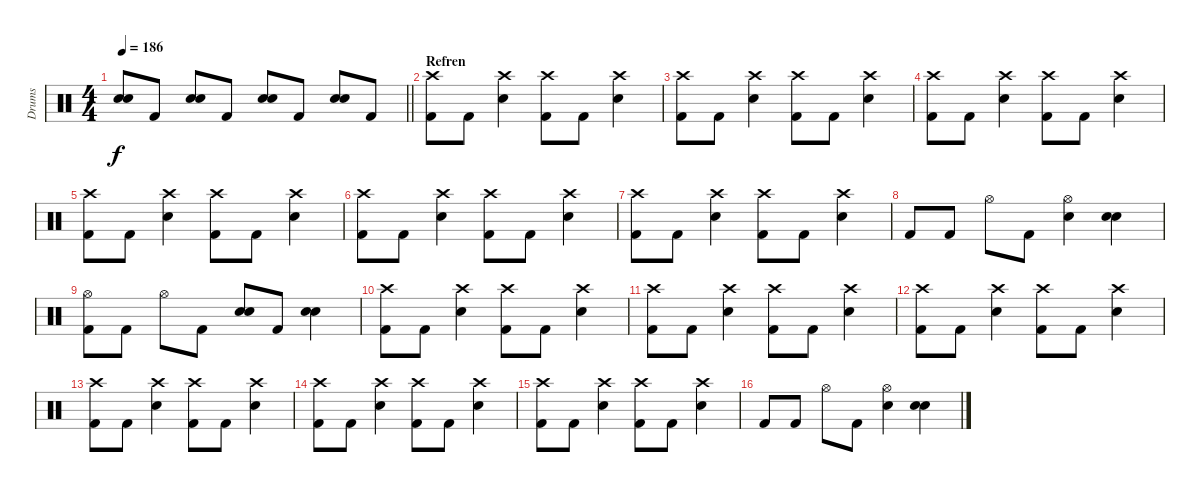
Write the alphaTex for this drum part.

\track ("Drums" "Drums") {instrument percussion}
\staff {score}
\articulation defaults
\ts (4 4)
\tempo 186
\clef neutral
\barLineRight lightlight
\ks c
("Snare (hit) 2" "Snare (hit) 2").8{dy f} "Kick (hit) 2".8 ("Snare (hit) 2" "Snare (hit) 2").8 "Kick (hit) 2".8 ("Snare (hit) 2" "Snare (hit) 2").8 "Kick (hit) 2".8 ("Snare (hit) 2" "Snare (hit) 2").8 "Kick (hit) 2".8 |
\section ("" "Refren")
("Crash high (hit)" "Kick (hit) 2").8 "Kick (hit) 2".8 ("Crash high (hit)" "Snare (hit) 2").4 ("Crash high (hit)" "Kick (hit) 2").8 "Kick (hit) 2".8 ("Crash high (hit)" "Snare (hit) 2").4 |
("Crash high (hit)" "Kick (hit) 2").8 "Kick (hit) 2".8 ("Crash high (hit)" "Snare (hit) 2").4 ("Crash high (hit)" "Kick (hit) 2").8 "Kick (hit) 2".8 ("Crash high (hit)" "Snare (hit) 2").4 |
("Crash high (hit)" "Kick (hit) 2").8 "Kick (hit) 2".8 ("Crash high (hit)" "Snare (hit) 2").4 ("Crash high (hit)" "Kick (hit) 2").8 "Kick (hit) 2".8 ("Crash high (hit)" "Snare (hit) 2").4 |
("Crash high (hit)" "Kick (hit) 2").8 "Kick (hit) 2".8 ("Crash high (hit)" "Snare (hit) 2").4 ("Crash high (hit)" "Kick (hit) 2").8 "Kick (hit) 2".8 ("Crash high (hit)" "Snare (hit) 2").4 |
("Crash high (hit)" "Kick (hit) 2").8 "Kick (hit) 2".8 ("Crash high (hit)" "Snare (hit) 2").4 ("Crash high (hit)" "Kick (hit) 2").8 "Kick (hit) 2".8 ("Crash high (hit)" "Snare (hit) 2").4 |
("Crash high (hit)" "Kick (hit) 2").8 "Kick (hit) 2".8 ("Crash high (hit)" "Snare (hit) 2").4 ("Crash high (hit)" "Kick (hit) 2").8 "Kick (hit) 2".8 ("Crash high (hit)" "Snare (hit) 2").4 |
"Kick (hit) 2".8 "Kick (hit) 2".8 "Hi-Hat (open)".8 "Kick (hit) 2".8 ("Hi-Hat (open)" "Snare (hit) 2").4 ("Snare (hit) 2" "Snare (hit) 2").4 |
("Hi-Hat (open)" "Kick (hit) 2").8 "Kick (hit) 2".8 "Hi-Hat (open)".8 "Kick (hit) 2".8 ("Snare (hit) 2" "Snare (hit) 2").8 "Kick (hit) 2".8 ("Snare (hit) 2" "Snare (hit) 2").4 |
("Crash high (hit)" "Kick (hit) 2").8 "Kick (hit) 2".8 ("Crash high (hit)" "Snare (hit) 2").4 ("Crash high (hit)" "Kick (hit) 2").8 "Kick (hit) 2".8 ("Crash high (hit)" "Snare (hit) 2").4 |
("Crash high (hit)" "Kick (hit) 2").8 "Kick (hit) 2".8 ("Crash high (hit)" "Snare (hit) 2").4 ("Crash high (hit)" "Kick (hit) 2").8 "Kick (hit) 2".8 ("Crash high (hit)" "Snare (hit) 2").4 |
("Crash high (hit)" "Kick (hit) 2").8 "Kick (hit) 2".8 ("Crash high (hit)" "Snare (hit) 2").4 ("Crash high (hit)" "Kick (hit) 2").8 "Kick (hit) 2".8 ("Crash high (hit)" "Snare (hit) 2").4 |
("Crash high (hit)" "Kick (hit) 2").8 "Kick (hit) 2".8 ("Crash high (hit)" "Snare (hit) 2").4 ("Crash high (hit)" "Kick (hit) 2").8 "Kick (hit) 2".8 ("Crash high (hit)" "Snare (hit) 2").4 |
("Crash high (hit)" "Kick (hit) 2").8 "Kick (hit) 2".8 ("Crash high (hit)" "Snare (hit) 2").4 ("Crash high (hit)" "Kick (hit) 2").8 "Kick (hit) 2".8 ("Crash high (hit)" "Snare (hit) 2").4 |
("Crash high (hit)" "Kick (hit) 2").8 "Kick (hit) 2".8 ("Crash high (hit)" "Snare (hit) 2").4 ("Crash high (hit)" "Kick (hit) 2").8 "Kick (hit) 2".8 ("Crash high (hit)" "Snare (hit) 2").4 |
"Kick (hit) 2".8 "Kick (hit) 2".8 "Hi-Hat (open)".8 "Kick (hit) 2".8 ("Hi-Hat (open)" "Snare (hit) 2").4 ("Snare (hit) 2" "Snare (hit) 2").4
